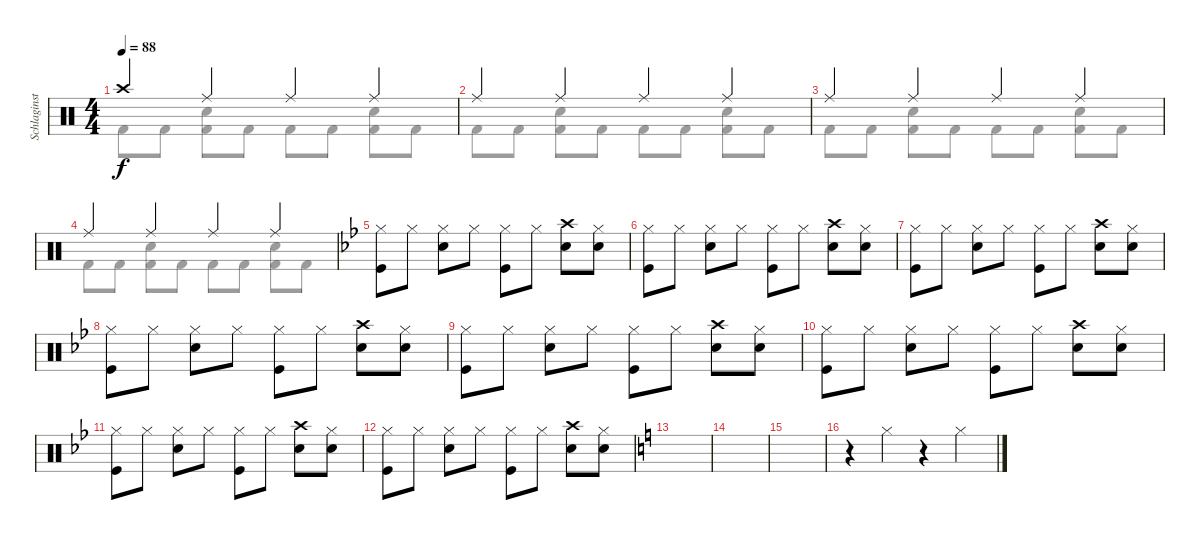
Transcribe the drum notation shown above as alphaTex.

\track ("Schlaginstrumente - Auswahl" "Schlaginst") {instrument percussion}
\staff {score}
\articulation defaults
\voice
\ts (4 4)
\tempo 88
\clef neutral
\ks c "Crash high (hit)".4{dy f volume 10 balance 8} "Ride (middle)".4 "Ride (middle)".4 "Ride (middle)".4
|
"Ride (middle)".4 "Ride (middle)".4 "Ride (middle)".4 "Ride (middle)".4 |
"Ride (middle)".4 "Ride (middle)".4 "Ride (middle)".4 "Ride (middle)".4 |
"Ride (middle)".4 "Ride (middle)".4 "Ride (middle)".4 "Ride (middle)".4 |
\ks bb
("Hi-Hat (closed)" "Kick (hit)").8 "Hi-Hat (closed)".8 ("Hi-Hat (closed)" "Snare (hit) 2").8 "Hi-Hat (closed)".8 ("Hi-Hat (closed)" "Kick (hit)").8 "Hi-Hat (closed)".8 ("Crash high (hit)" "Snare (hit) 2").8 ("Hi-Hat (closed)" "Snare (hit) 2").8 |
("Hi-Hat (closed)" "Kick (hit)").8 "Hi-Hat (closed)".8 ("Hi-Hat (closed)" "Snare (hit) 2").8 "Hi-Hat (closed)".8 ("Hi-Hat (closed)" "Kick (hit)").8 "Hi-Hat (closed)".8 ("Crash high (hit)" "Snare (hit) 2").8 ("Hi-Hat (closed)" "Snare (hit) 2").8 |
("Hi-Hat (closed)" "Kick (hit)").8 "Hi-Hat (closed)".8 ("Hi-Hat (closed)" "Snare (hit) 2").8 "Hi-Hat (closed)".8 ("Hi-Hat (closed)" "Kick (hit)").8 "Hi-Hat (closed)".8 ("Crash high (hit)" "Snare (hit) 2").8 ("Hi-Hat (closed)" "Snare (hit) 2").8 |
("Hi-Hat (closed)" "Kick (hit)").8 "Hi-Hat (closed)".8 ("Hi-Hat (closed)" "Snare (hit) 2").8 "Hi-Hat (closed)".8 ("Hi-Hat (closed)" "Kick (hit)").8 "Hi-Hat (closed)".8 ("Crash high (hit)" "Snare (hit) 2").8 ("Hi-Hat (closed)" "Snare (hit) 2").8 |
("Hi-Hat (closed)" "Kick (hit)").8 "Hi-Hat (closed)".8 ("Hi-Hat (closed)" "Snare (hit) 2").8 "Hi-Hat (closed)".8 ("Hi-Hat (closed)" "Kick (hit)").8 "Hi-Hat (closed)".8 ("Crash high (hit)" "Snare (hit) 2").8 ("Hi-Hat (closed)" "Snare (hit) 2").8 |
("Hi-Hat (closed)" "Kick (hit)").8 "Hi-Hat (closed)".8 ("Hi-Hat (closed)" "Snare (hit) 2").8 "Hi-Hat (closed)".8 ("Hi-Hat (closed)" "Kick (hit)").8 "Hi-Hat (closed)".8 ("Crash high (hit)" "Snare (hit) 2").8 ("Hi-Hat (closed)" "Snare (hit) 2").8 |
("Hi-Hat (closed)" "Kick (hit)").8 "Hi-Hat (closed)".8 ("Hi-Hat (closed)" "Snare (hit) 2").8 "Hi-Hat (closed)".8 ("Hi-Hat (closed)" "Kick (hit)").8 "Hi-Hat (closed)".8 ("Crash high (hit)" "Snare (hit) 2").8 ("Hi-Hat (closed)" "Snare (hit) 2").8 |
("Hi-Hat (closed)" "Kick (hit)").8 "Hi-Hat (closed)".8 ("Hi-Hat (closed)" "Snare (hit) 2").8 "Hi-Hat (closed)".8 ("Hi-Hat (closed)" "Kick (hit)").8 "Hi-Hat (closed)".8 ("Crash high (hit)" "Snare (hit) 2").8 ("Hi-Hat (closed)" "Snare (hit) 2").8 |
\ks c
|
|
|
r.4 "Hi-Hat (closed)".4 r.4 "Hi-Hat (closed)".4
\voice
\clef neutral
\ottava regular
\simile none
\ks c "Kick (hit) 2".8{dy f} "Kick (hit) 2".8
("Electric Snare (hit)" "Kick (hit) 2").8 "Kick (hit) 2".8 "Kick (hit) 2".8 "Kick (hit) 2".8 ("Electric Snare (hit)" "Kick (hit) 2").8 "Kick (hit) 2".8 |
"Kick (hit) 2".8 "Kick (hit) 2".8 ("Electric Snare (hit)" "Kick (hit) 2").8 "Kick (hit) 2".8 "Kick (hit) 2".8 "Kick (hit) 2".8 ("Electric Snare (hit)" "Kick (hit) 2").8 "Kick (hit) 2".8 |
"Kick (hit) 2".8 "Kick (hit) 2".8 ("Electric Snare (hit)" "Kick (hit) 2").8 "Kick (hit) 2".8 "Kick (hit) 2".8 "Kick (hit) 2".8 ("Electric Snare (hit)" "Kick (hit) 2").8 "Kick (hit) 2".8 |
"Kick (hit) 2".8 "Kick (hit) 2".8 ("Electric Snare (hit)" "Kick (hit) 2").8 "Kick (hit) 2".8 "Kick (hit) 2".8 "Kick (hit) 2".8 ("Electric Snare (hit)" "Kick (hit) 2").8 "Kick (hit) 2".8 |
\ks bb
|
|
|
|
|
|
|
|
\ks c
|
|
|
